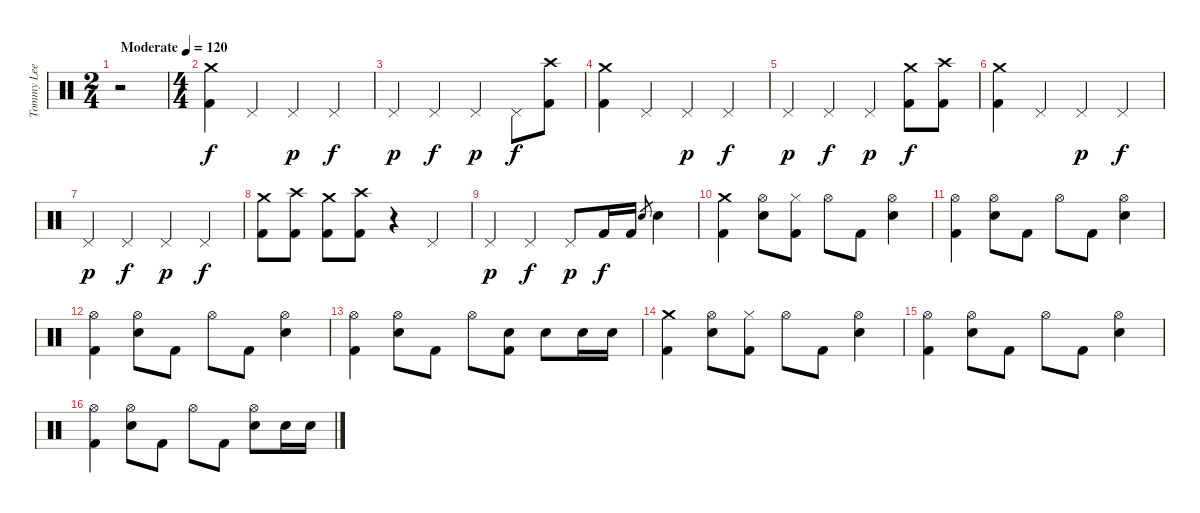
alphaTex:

\track ("Tommy Lee - Drums" "Tommy Lee ") {instrument percussion}
\staff {score}
\articulation defaults
\ts (2 4)
\tempo (120 "Moderate")
\clef neutral
\ks c
r.2{dy f} |
\ts (4 4)
("Crash medium (hit)" "Kick (hit) 2").4 "Pedal Hi-Hat (hit)".4 "Pedal Hi-Hat (hit)".4{dy p} "Pedal Hi-Hat (hit)".4{dy f} |
"Pedal Hi-Hat (hit)".4{dy p} "Pedal Hi-Hat (hit)".4{dy f} "Pedal Hi-Hat (hit)".4{dy p} "Pedal Hi-Hat (hit)".8{dy f} ("Crash high (hit)" "Kick (hit) 2").8 |
("Crash medium (hit)" "Kick (hit) 2").4 "Pedal Hi-Hat (hit)".4 "Pedal Hi-Hat (hit)".4{dy p} "Pedal Hi-Hat (hit)".4{dy f} |
"Pedal Hi-Hat (hit)".4{dy p} "Pedal Hi-Hat (hit)".4{dy f} "Pedal Hi-Hat (hit)".4{dy p} ("Crash medium (hit)" "Kick (hit) 2").8{dy f} ("Crash high (hit)" "Kick (hit) 2").8 |
("Crash medium (hit)" "Kick (hit) 2").4 "Pedal Hi-Hat (hit)".4 "Pedal Hi-Hat (hit)".4{dy p} "Pedal Hi-Hat (hit)".4{dy f} |
"Pedal Hi-Hat (hit)".4{dy p} "Pedal Hi-Hat (hit)".4{dy f} "Pedal Hi-Hat (hit)".4{dy p} "Pedal Hi-Hat (hit)".4{dy f} |
("Crash medium (hit)" "Kick (hit) 2").8 ("Crash high (hit)" "Kick (hit) 2").8 ("Crash medium (hit)" "Kick (hit) 2").8 ("Crash high (hit)" "Kick (hit) 2").8 r.4 "Pedal Hi-Hat (hit)".4 |
"Pedal Hi-Hat (hit)".4{dy p} "Pedal Hi-Hat (hit)".4{dy f} "Pedal Hi-Hat (hit)".8{dy p} "Kick (hit) 2".16{dy f} "Kick (hit) 2".16 "Snare (hit) 2".8{gr} "Snare (hit) 2".4 |
("Crash medium (hit)" "Kick (hit) 2").4 ("Hi-Hat (open)" "Snare (hit) 2").8 ("Hi-Hat (closed)" "Kick (hit) 2").8 "Hi-Hat (open)".8 "Kick (hit) 2".8 ("Hi-Hat (open)" "Snare (hit) 2").4 |
("Hi-Hat (open)" "Kick (hit) 2").4 ("Hi-Hat (open)" "Snare (hit) 2").8 "Kick (hit) 2".8 "Hi-Hat (open)".8 "Kick (hit) 2".8 ("Hi-Hat (open)" "Snare (hit) 2").4 |
("Hi-Hat (open)" "Kick (hit) 2").4 ("Hi-Hat (open)" "Snare (hit) 2").8 "Kick (hit) 2".8 "Hi-Hat (open)".8 "Kick (hit) 2".8 ("Hi-Hat (open)" "Snare (hit) 2").4 |
("Hi-Hat (open)" "Kick (hit) 2").4 ("Hi-Hat (open)" "Snare (hit) 2").8 "Kick (hit) 2".8 "Hi-Hat (open)".8 ("Snare (hit) 2" "Kick (hit) 2").8 "Snare (hit) 2".8 "Snare (hit) 2".16 "Snare (hit) 2".16 |
("Crash medium (hit)" "Kick (hit) 2").4 ("Hi-Hat (open)" "Snare (hit) 2").8 ("Hi-Hat (closed)" "Kick (hit) 2").8 "Hi-Hat (open)".8 "Kick (hit) 2".8 ("Hi-Hat (open)" "Snare (hit) 2").4 |
("Hi-Hat (open)" "Kick (hit) 2").4 ("Hi-Hat (open)" "Snare (hit) 2").8 "Kick (hit) 2".8 "Hi-Hat (open)".8 "Kick (hit) 2".8 ("Hi-Hat (open)" "Snare (hit) 2").4 |
("Hi-Hat (open)" "Kick (hit) 2").4 ("Hi-Hat (open)" "Snare (hit) 2").8 "Kick (hit) 2".8 "Hi-Hat (open)".8 "Kick (hit) 2".8 ("Hi-Hat (open)" "Snare (hit) 2").8 "Snare (hit) 2".16 "Snare (hit) 2".16
